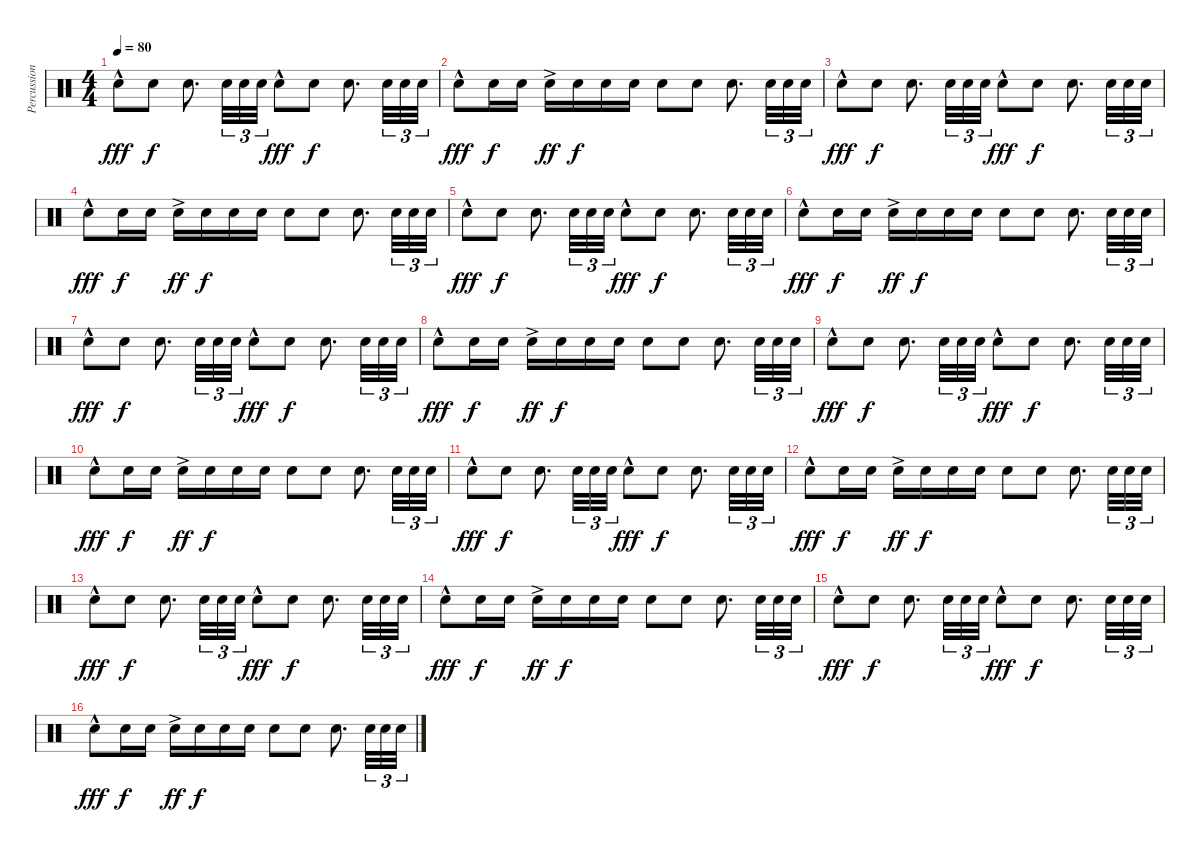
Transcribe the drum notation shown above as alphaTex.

\track ("Percussion" "Percussion") {instrument percussion}
\staff {score}
\articulation defaults
\ts (4 4)
\tempo 80
\clef neutral
\ks c "Snare (hit) 2"{hac}.8{dy fff} "Snare (hit) 2".8{dy f} "Snare (hit) 2".8{d} "Snare (hit) 2".32{tu (3 2)} "Snare (hit) 2".32{tu (3 2)} "Snare (hit) 2".32{tu (3 2)} "Snare (hit) 2"{hac}.8{dy fff} "Snare (hit) 2".8{dy f} "Snare (hit) 2".8{d} "Snare (hit) 2".32{tu (3 2)} "Snare (hit) 2".32{tu (3 2)} "Snare (hit) 2".32{tu (3 2)}
|
"Snare (hit) 2"{hac}.8{dy fff} "Snare (hit) 2".16{dy f} "Snare (hit) 2".16 "Snare (hit) 2"{ac}.16{dy ff} "Snare (hit) 2".16{dy f} "Snare (hit) 2".16 "Snare (hit) 2".16 "Snare (hit) 2".8 "Snare (hit) 2".8 "Snare (hit) 2".8{d} "Snare (hit) 2".32{tu (3 2)} "Snare (hit) 2".32{tu (3 2)} "Snare (hit) 2".32{tu (3 2)} |
"Snare (hit) 2"{hac}.8{dy fff} "Snare (hit) 2".8{dy f} "Snare (hit) 2".8{d} "Snare (hit) 2".32{tu (3 2)} "Snare (hit) 2".32{tu (3 2)} "Snare (hit) 2".32{tu (3 2)} "Snare (hit) 2"{hac}.8{dy fff} "Snare (hit) 2".8{dy f} "Snare (hit) 2".8{d} "Snare (hit) 2".32{tu (3 2)} "Snare (hit) 2".32{tu (3 2)} "Snare (hit) 2".32{tu (3 2)} |
"Snare (hit) 2"{hac}.8{dy fff} "Snare (hit) 2".16{dy f} "Snare (hit) 2".16 "Snare (hit) 2"{ac}.16{dy ff} "Snare (hit) 2".16{dy f} "Snare (hit) 2".16 "Snare (hit) 2".16 "Snare (hit) 2".8 "Snare (hit) 2".8 "Snare (hit) 2".8{d} "Snare (hit) 2".32{tu (3 2)} "Snare (hit) 2".32{tu (3 2)} "Snare (hit) 2".32{tu (3 2)} |
"Snare (hit) 2"{hac}.8{dy fff} "Snare (hit) 2".8{dy f} "Snare (hit) 2".8{d} "Snare (hit) 2".32{tu (3 2)} "Snare (hit) 2".32{tu (3 2)} "Snare (hit) 2".32{tu (3 2)} "Snare (hit) 2"{hac}.8{dy fff} "Snare (hit) 2".8{dy f} "Snare (hit) 2".8{d} "Snare (hit) 2".32{tu (3 2)} "Snare (hit) 2".32{tu (3 2)} "Snare (hit) 2".32{tu (3 2)} |
"Snare (hit) 2"{hac}.8{dy fff} "Snare (hit) 2".16{dy f} "Snare (hit) 2".16 "Snare (hit) 2"{ac}.16{dy ff} "Snare (hit) 2".16{dy f} "Snare (hit) 2".16 "Snare (hit) 2".16 "Snare (hit) 2".8 "Snare (hit) 2".8 "Snare (hit) 2".8{d} "Snare (hit) 2".32{tu (3 2)} "Snare (hit) 2".32{tu (3 2)} "Snare (hit) 2".32{tu (3 2)} |
"Snare (hit) 2"{hac}.8{dy fff} "Snare (hit) 2".8{dy f} "Snare (hit) 2".8{d} "Snare (hit) 2".32{tu (3 2)} "Snare (hit) 2".32{tu (3 2)} "Snare (hit) 2".32{tu (3 2)} "Snare (hit) 2"{hac}.8{dy fff} "Snare (hit) 2".8{dy f} "Snare (hit) 2".8{d} "Snare (hit) 2".32{tu (3 2)} "Snare (hit) 2".32{tu (3 2)} "Snare (hit) 2".32{tu (3 2)} |
"Snare (hit) 2"{hac}.8{dy fff} "Snare (hit) 2".16{dy f} "Snare (hit) 2".16 "Snare (hit) 2"{ac}.16{dy ff} "Snare (hit) 2".16{dy f} "Snare (hit) 2".16 "Snare (hit) 2".16 "Snare (hit) 2".8 "Snare (hit) 2".8 "Snare (hit) 2".8{d} "Snare (hit) 2".32{tu (3 2)} "Snare (hit) 2".32{tu (3 2)} "Snare (hit) 2".32{tu (3 2)} |
"Snare (hit) 2"{hac}.8{dy fff} "Snare (hit) 2".8{dy f} "Snare (hit) 2".8{d} "Snare (hit) 2".32{tu (3 2)} "Snare (hit) 2".32{tu (3 2)} "Snare (hit) 2".32{tu (3 2)} "Snare (hit) 2"{hac}.8{dy fff} "Snare (hit) 2".8{dy f} "Snare (hit) 2".8{d} "Snare (hit) 2".32{tu (3 2)} "Snare (hit) 2".32{tu (3 2)} "Snare (hit) 2".32{tu (3 2)} |
"Snare (hit) 2"{hac}.8{dy fff} "Snare (hit) 2".16{dy f} "Snare (hit) 2".16 "Snare (hit) 2"{ac}.16{dy ff} "Snare (hit) 2".16{dy f} "Snare (hit) 2".16 "Snare (hit) 2".16 "Snare (hit) 2".8 "Snare (hit) 2".8 "Snare (hit) 2".8{d} "Snare (hit) 2".32{tu (3 2)} "Snare (hit) 2".32{tu (3 2)} "Snare (hit) 2".32{tu (3 2)} |
"Snare (hit) 2"{hac}.8{dy fff} "Snare (hit) 2".8{dy f} "Snare (hit) 2".8{d} "Snare (hit) 2".32{tu (3 2)} "Snare (hit) 2".32{tu (3 2)} "Snare (hit) 2".32{tu (3 2)} "Snare (hit) 2"{hac}.8{dy fff} "Snare (hit) 2".8{dy f} "Snare (hit) 2".8{d} "Snare (hit) 2".32{tu (3 2)} "Snare (hit) 2".32{tu (3 2)} "Snare (hit) 2".32{tu (3 2)} |
"Snare (hit) 2"{hac}.8{dy fff} "Snare (hit) 2".16{dy f} "Snare (hit) 2".16 "Snare (hit) 2"{ac}.16{dy ff} "Snare (hit) 2".16{dy f} "Snare (hit) 2".16 "Snare (hit) 2".16 "Snare (hit) 2".8 "Snare (hit) 2".8 "Snare (hit) 2".8{d} "Snare (hit) 2".32{tu (3 2)} "Snare (hit) 2".32{tu (3 2)} "Snare (hit) 2".32{tu (3 2)} |
"Snare (hit) 2"{hac}.8{dy fff} "Snare (hit) 2".8{dy f} "Snare (hit) 2".8{d} "Snare (hit) 2".32{tu (3 2)} "Snare (hit) 2".32{tu (3 2)} "Snare (hit) 2".32{tu (3 2)} "Snare (hit) 2"{hac}.8{dy fff} "Snare (hit) 2".8{dy f} "Snare (hit) 2".8{d} "Snare (hit) 2".32{tu (3 2)} "Snare (hit) 2".32{tu (3 2)} "Snare (hit) 2".32{tu (3 2)} |
"Snare (hit) 2"{hac}.8{dy fff} "Snare (hit) 2".16{dy f} "Snare (hit) 2".16 "Snare (hit) 2"{ac}.16{dy ff} "Snare (hit) 2".16{dy f} "Snare (hit) 2".16 "Snare (hit) 2".16 "Snare (hit) 2".8 "Snare (hit) 2".8 "Snare (hit) 2".8{d} "Snare (hit) 2".32{tu (3 2)} "Snare (hit) 2".32{tu (3 2)} "Snare (hit) 2".32{tu (3 2)} |
"Snare (hit) 2"{hac}.8{dy fff} "Snare (hit) 2".8{dy f} "Snare (hit) 2".8{d} "Snare (hit) 2".32{tu (3 2)} "Snare (hit) 2".32{tu (3 2)} "Snare (hit) 2".32{tu (3 2)} "Snare (hit) 2"{hac}.8{dy fff} "Snare (hit) 2".8{dy f} "Snare (hit) 2".8{d} "Snare (hit) 2".32{tu (3 2)} "Snare (hit) 2".32{tu (3 2)} "Snare (hit) 2".32{tu (3 2)} |
"Snare (hit) 2"{hac}.8{dy fff} "Snare (hit) 2".16{dy f} "Snare (hit) 2".16 "Snare (hit) 2"{ac}.16{dy ff} "Snare (hit) 2".16{dy f} "Snare (hit) 2".16 "Snare (hit) 2".16 "Snare (hit) 2".8 "Snare (hit) 2".8 "Snare (hit) 2".8{d} "Snare (hit) 2".32{tu (3 2)} "Snare (hit) 2".32{tu (3 2)} "Snare (hit) 2".32{tu (3 2)}
